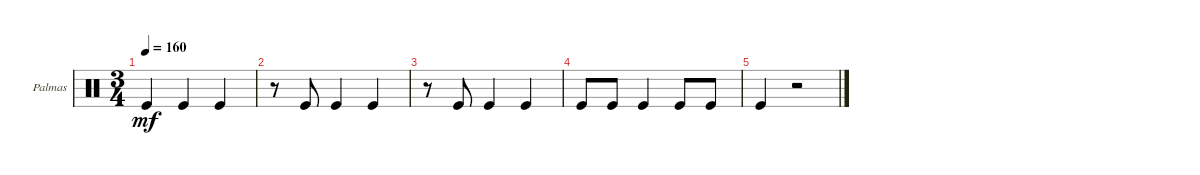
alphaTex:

\defaultSystemsLayout 4
\bracketExtendMode groupsimilarinstruments
\firstSystemTrackNameOrientation horizontal
\otherSystemsTrackNameOrientation horizontal
\track ("Palmas" "Palmas") {instrument percussion}
\staff {score}
\articulation defaults
\ts (3 4)
\tempo 160
\clef neutral
\ks c "Kick (hit)".4{dy mf} "Kick (hit)".4 "Kick (hit)".4
|
r.8 "Kick (hit)".8 "Kick (hit)".4 "Kick (hit)".4 |
r.8 "Kick (hit)".8 "Kick (hit)".4 "Kick (hit)".4 |
"Kick (hit)".8 "Kick (hit)".8 "Kick (hit)".4 "Kick (hit)".8 "Kick (hit)".8 |
"Kick (hit)".4 r.2
